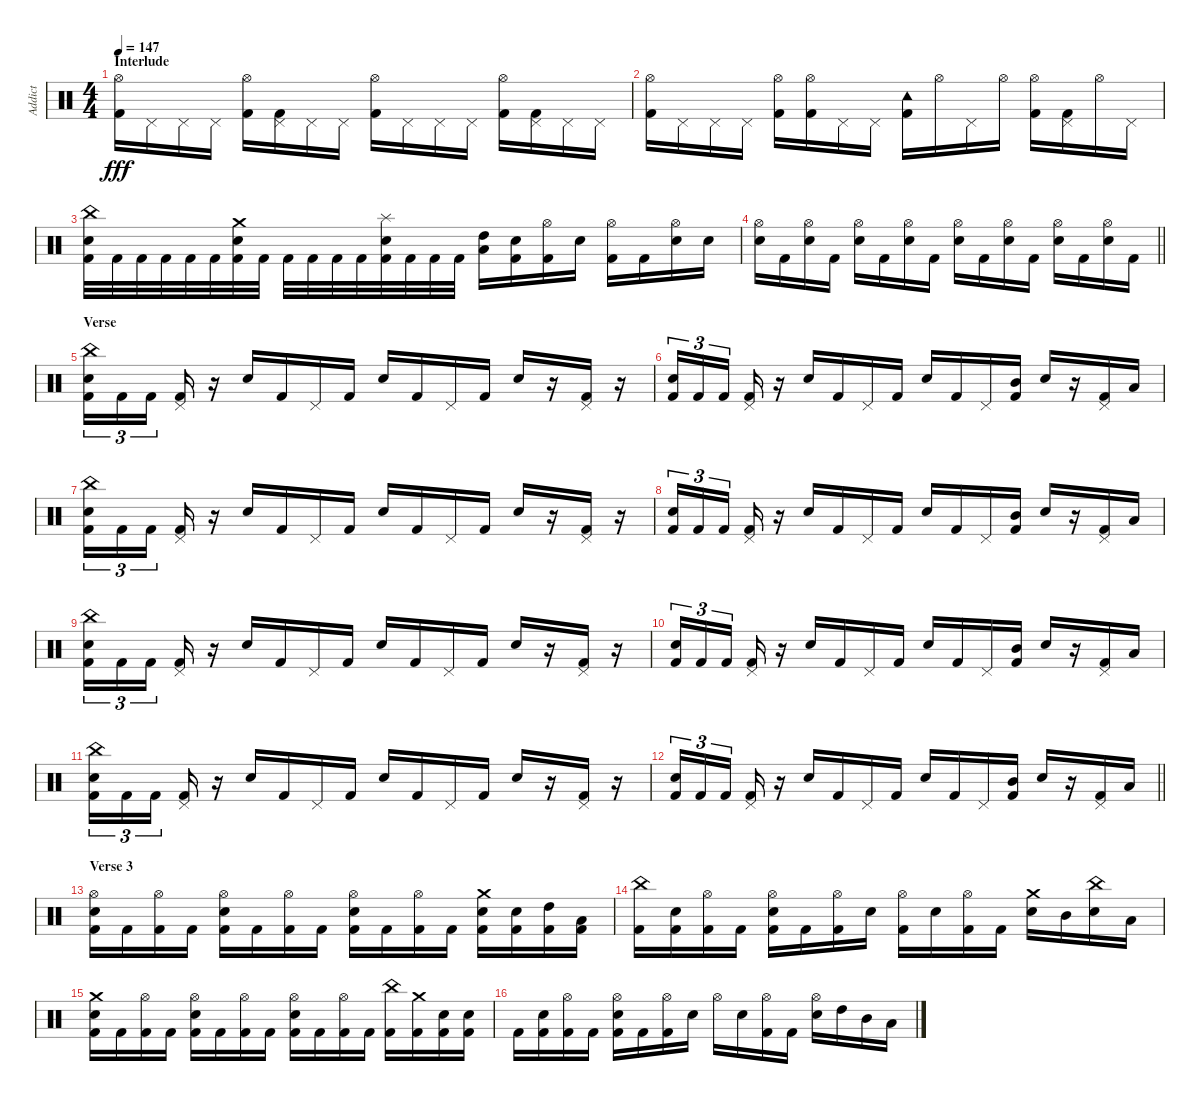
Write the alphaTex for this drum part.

\track ("Addict" "Addict") {instrument percussion}
\staff {score}
\articulation defaults
\ts (4 4)
\section ("" "Interlude")
\tempo 147
\clef neutral
\ks c
("Kick (hit) 2" "Hi-Hat (open)").16{dy fff} "Pedal Hi-Hat (hit)".16 "Pedal Hi-Hat (hit)".16 "Pedal Hi-Hat (hit)".16 ("Kick (hit) 2" "Hi-Hat (open)").16 ("Kick (hit) 2" "Pedal Hi-Hat (hit)").16 "Pedal Hi-Hat (hit)".16 "Pedal Hi-Hat (hit)".16 ("Kick (hit) 2" "Hi-Hat (open)").16 "Pedal Hi-Hat (hit)".16 "Pedal Hi-Hat (hit)".16 "Pedal Hi-Hat (hit)".16 ("Kick (hit) 2" "Hi-Hat (open)").16 ("Kick (hit) 2" "Pedal Hi-Hat (hit)").16 "Pedal Hi-Hat (hit)".16 "Pedal Hi-Hat (hit)".16 |
("Kick (hit) 2" "Hi-Hat (open)").16 "Pedal Hi-Hat (hit)".16 "Pedal Hi-Hat (hit)".16 "Pedal Hi-Hat (hit)".16 ("Kick (hit) 2" "Hi-Hat (open)").16 ("Kick (hit) 2" "Hi-Hat (open)").16 "Pedal Hi-Hat (hit)".16 "Pedal Hi-Hat (hit)".16 ("Kick (hit) 2" "Tambourine (hit)").16 "Hi-Hat (open)".16 "Pedal Hi-Hat (hit)".16 "Hi-Hat (open)".16 ("Kick (hit) 2" "Hi-Hat (open)").16 ("Kick (hit) 2" "Pedal Hi-Hat (hit)").16 "Hi-Hat (open)".16 "Pedal Hi-Hat (hit)".16 |
("Kick (hit) 2" "Snare (hit) 2" "China (hit)").32 "Kick (hit) 2".32 "Kick (hit) 2".32 "Kick (hit) 2".32 "Kick (hit) 2".32 "Kick (hit) 2".32 ("Kick (hit) 2" "Snare (hit) 2" "Crash medium (hit)").32 "Kick (hit) 2".32 "Kick (hit) 2".32 "Kick (hit) 2".32 "Kick (hit) 2".32 "Kick (hit) 2".32 ("Kick (hit) 2" "Snare (hit) 2" "Splash (hit)").32 "Kick (hit) 2".32 "Kick (hit) 2".32 "Kick (hit) 2".32 ("High Tom (hit)" "Low Tom (hit)").16 ("Kick (hit) 2" "Snare (hit) 2").16 ("Kick (hit) 2" "Hi-Hat (open)").16 "Snare (hit) 2".16 ("Kick (hit) 2" "Hi-Hat (open)").16 "Kick (hit) 2".16 ("Snare (hit) 2" "Hi-Hat (open)").16 "Snare (hit) 2".16 |
\barLineRight lightlight
("Snare (hit) 2" "Hi-Hat (open)").16 "Kick (hit) 2".16 ("Snare (hit) 2" "Hi-Hat (open)").16 "Kick (hit) 2".16 ("Snare (hit) 2" "Hi-Hat (open)").16 "Kick (hit) 2".16 ("Snare (hit) 2" "Hi-Hat (open)").16 "Kick (hit) 2".16 ("Snare (hit) 2" "Hi-Hat (open)").16 "Kick (hit) 2".16 ("Snare (hit) 2" "Hi-Hat (open)").16 "Kick (hit) 2".16 ("Snare (hit) 2" "Hi-Hat (open)").16 "Kick (hit) 2".16 ("Snare (hit) 2" "Hi-Hat (open)").16 "Kick (hit) 2".16 |
\section ("" "Verse")
("Kick (hit) 2" "Snare (hit) 2" "China (hit)").16{tu (3 2)} "Kick (hit) 2".16{tu (3 2)} "Kick (hit) 2".16{tu (3 2) beam splitsecondary} ("Kick (hit) 2" "Pedal Hi-Hat (hit)").16 r.16 "Snare (hit) 2".16 "Kick (hit) 2".16 "Pedal Hi-Hat (hit)".16 "Kick (hit) 2".16 "Snare (hit) 2".16 "Kick (hit) 2".16 "Pedal Hi-Hat (hit)".16 "Kick (hit) 2".16 "Snare (hit) 2".16 r.16 ("Kick (hit) 2" "Pedal Hi-Hat (hit)").16 r.16 |
("Kick (hit) 2" "Snare (hit) 2").16{tu (3 2)} "Kick (hit) 2".16{tu (3 2)} "Kick (hit) 2".16{tu (3 2) beam splitsecondary} ("Kick (hit) 2" "Pedal Hi-Hat (hit)").16 r.16 "Snare (hit) 2".16 "Kick (hit) 2".16 "Pedal Hi-Hat (hit)".16 "Kick (hit) 2".16 "Snare (hit) 2".16 "Kick (hit) 2".16 "Pedal Hi-Hat (hit)".16 ("Kick (hit) 2" "Mid Tom (hit)").16 "Snare (hit) 2".16 r.16 ("Kick (hit) 2" "Pedal Hi-Hat (hit)").16 "Low Tom (hit)".16 |
("Kick (hit) 2" "Snare (hit) 2" "China (hit)").16{tu (3 2)} "Kick (hit) 2".16{tu (3 2)} "Kick (hit) 2".16{tu (3 2) beam splitsecondary} ("Kick (hit) 2" "Pedal Hi-Hat (hit)").16 r.16 "Snare (hit) 2".16 "Kick (hit) 2".16 "Pedal Hi-Hat (hit)".16 "Kick (hit) 2".16 "Snare (hit) 2".16 "Kick (hit) 2".16 "Pedal Hi-Hat (hit)".16 "Kick (hit) 2".16 "Snare (hit) 2".16 r.16 ("Kick (hit) 2" "Pedal Hi-Hat (hit)").16 r.16 |
("Kick (hit) 2" "Snare (hit) 2").16{tu (3 2)} "Kick (hit) 2".16{tu (3 2)} "Kick (hit) 2".16{tu (3 2) beam splitsecondary} ("Kick (hit) 2" "Pedal Hi-Hat (hit)").16 r.16 "Snare (hit) 2".16 "Kick (hit) 2".16 "Pedal Hi-Hat (hit)".16 "Kick (hit) 2".16 "Snare (hit) 2".16 "Kick (hit) 2".16 "Pedal Hi-Hat (hit)".16 ("Kick (hit) 2" "Mid Tom (hit)").16 "Snare (hit) 2".16 r.16 ("Kick (hit) 2" "Pedal Hi-Hat (hit)").16 "Low Tom (hit)".16 |
("Kick (hit) 2" "Snare (hit) 2" "China (hit)").16{tu (3 2)} "Kick (hit) 2".16{tu (3 2)} "Kick (hit) 2".16{tu (3 2) beam splitsecondary} ("Kick (hit) 2" "Pedal Hi-Hat (hit)").16 r.16 "Snare (hit) 2".16 "Kick (hit) 2".16 "Pedal Hi-Hat (hit)".16 "Kick (hit) 2".16 "Snare (hit) 2".16 "Kick (hit) 2".16 "Pedal Hi-Hat (hit)".16 "Kick (hit) 2".16 "Snare (hit) 2".16 r.16 ("Kick (hit) 2" "Pedal Hi-Hat (hit)").16 r.16 |
("Kick (hit) 2" "Snare (hit) 2").16{tu (3 2)} "Kick (hit) 2".16{tu (3 2)} "Kick (hit) 2".16{tu (3 2) beam splitsecondary} ("Kick (hit) 2" "Pedal Hi-Hat (hit)").16 r.16 "Snare (hit) 2".16 "Kick (hit) 2".16 "Pedal Hi-Hat (hit)".16 "Kick (hit) 2".16 "Snare (hit) 2".16 "Kick (hit) 2".16 "Pedal Hi-Hat (hit)".16 ("Kick (hit) 2" "Mid Tom (hit)").16 "Snare (hit) 2".16 r.16 ("Kick (hit) 2" "Pedal Hi-Hat (hit)").16 "Low Tom (hit)".16 |
("Kick (hit) 2" "Snare (hit) 2" "China (hit)").16{tu (3 2)} "Kick (hit) 2".16{tu (3 2)} "Kick (hit) 2".16{tu (3 2) beam splitsecondary} ("Kick (hit) 2" "Pedal Hi-Hat (hit)").16 r.16 "Snare (hit) 2".16 "Kick (hit) 2".16 "Pedal Hi-Hat (hit)".16 "Kick (hit) 2".16 "Snare (hit) 2".16 "Kick (hit) 2".16 "Pedal Hi-Hat (hit)".16 "Kick (hit) 2".16 "Snare (hit) 2".16 r.16 ("Kick (hit) 2" "Pedal Hi-Hat (hit)").16 r.16 |
\barLineRight lightlight
("Kick (hit) 2" "Snare (hit) 2").16{tu (3 2)} "Kick (hit) 2".16{tu (3 2)} "Kick (hit) 2".16{tu (3 2) beam splitsecondary} ("Kick (hit) 2" "Pedal Hi-Hat (hit)").16 r.16 "Snare (hit) 2".16 "Kick (hit) 2".16 "Pedal Hi-Hat (hit)".16 "Kick (hit) 2".16 "Snare (hit) 2".16 "Kick (hit) 2".16 "Pedal Hi-Hat (hit)".16 ("Kick (hit) 2" "Mid Tom (hit)").16 "Snare (hit) 2".16 r.16 ("Kick (hit) 2" "Pedal Hi-Hat (hit)").16 "Low Tom (hit)".16 |
\section ("" "Verse 3")
("Kick (hit) 2" "Snare (hit) 2" "Hi-Hat (open)").16 "Kick (hit) 2".16 ("Kick (hit) 2" "Hi-Hat (open)").16 "Kick (hit) 2".16 ("Kick (hit) 2" "Snare (hit) 2" "Hi-Hat (open)").16 "Kick (hit) 2".16 ("Kick (hit) 2" "Hi-Hat (open)").16 "Kick (hit) 2".16 ("Kick (hit) 2" "Snare (hit) 2" "Hi-Hat (open)").16 "Kick (hit) 2".16 ("Kick (hit) 2" "Hi-Hat (open)").16 "Kick (hit) 2".16 ("Kick (hit) 2" "Snare (hit) 2" "Crash medium (hit)").16 ("Kick (hit) 2" "Snare (hit) 2").16 ("Kick (hit) 2" "High Tom (hit)").16 ("Kick (hit) 2" "Low Tom (hit)").16 |
("Kick (hit) 2" "China (hit)").16 ("Kick (hit) 2" "Snare (hit) 2").16 ("Kick (hit) 2" "Hi-Hat (open)").16 "Kick (hit) 2".16 ("Kick (hit) 2" "Snare (hit) 2" "Hi-Hat (open)").16 "Kick (hit) 2".16 ("Kick (hit) 2" "Hi-Hat (open)").16 "Snare (hit) 2".16 ("Kick (hit) 2" "Hi-Hat (open)").16 "Snare (hit) 2".16 ("Kick (hit) 2" "Hi-Hat (open)").16 "Kick (hit) 2".16 ("Snare (hit) 2" "Crash medium (hit)").16 "Mid Tom (hit)".16 ("Snare (hit) 2" "China (hit)").16 "Low Tom (hit)".16 |
("Kick (hit) 2" "Snare (hit) 2" "Crash medium (hit)").16 "Kick (hit) 2".16 ("Kick (hit) 2" "Hi-Hat (open)").16 "Kick (hit) 2".16 ("Kick (hit) 2" "Snare (hit) 2" "Hi-Hat (open)").16 "Kick (hit) 2".16 ("Kick (hit) 2" "Hi-Hat (open)").16 "Kick (hit) 2".16 ("Kick (hit) 2" "Snare (hit) 2" "Hi-Hat (open)").16 "Kick (hit) 2".16 ("Kick (hit) 2" "Hi-Hat (open)").16 "Kick (hit) 2".16 ("Kick (hit) 2" "China (hit)").16 ("Kick (hit) 2" "Crash medium (hit)").16 ("Kick (hit) 2" "Snare (hit) 2").16 ("Kick (hit) 2" "Snare (hit) 2").16 |
"Kick (hit) 2".16 ("Kick (hit) 2" "Snare (hit) 2").16 ("Kick (hit) 2" "Hi-Hat (open)").16 "Kick (hit) 2".16 ("Kick (hit) 2" "Snare (hit) 2" "Hi-Hat (open)").16 "Kick (hit) 2".16 ("Kick (hit) 2" "Hi-Hat (open)").16 "Snare (hit) 2".16 "Hi-Hat (open)".16 "Snare (hit) 2".16 ("Kick (hit) 2" "Hi-Hat (open)").16 "Kick (hit) 2".16 ("Snare (hit) 2" "Hi-Hat (open)").16 "High Tom (hit)".16 "Mid Tom (hit)".16 "Low Tom (hit)".16
